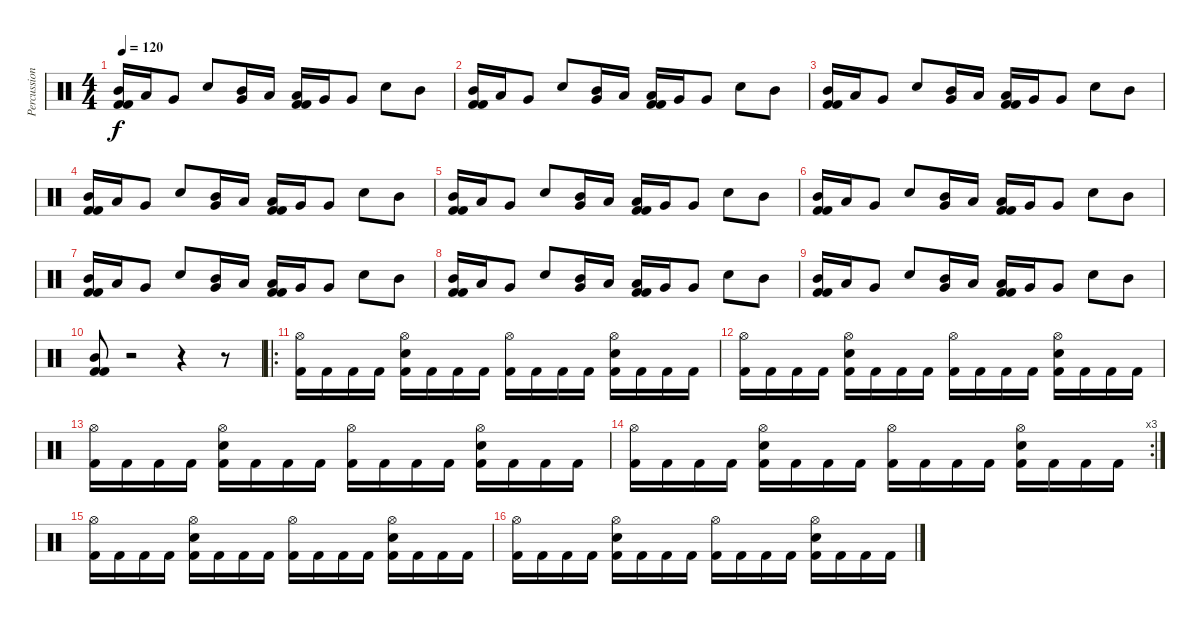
\track ("Percussions" "Percussion") {instrument percussion}
\staff {score}
\articulation defaults
\ts (4 4)
\tempo 120
\clef neutral
\ks c
("Kick (hit) 2" "Mid Tom (hit)" "Kick (hit) 2").16{dy f} "Low Tom (hit)".16 "Very Low Tom (hit)".8 "Snare (hit) 2".8 ("Mid Tom (hit)" "Very Low Tom (hit)").16 "Low Tom (hit)".16 ("Kick (hit) 2" "Low Tom (hit)" "Kick (hit) 2").16 "Very Low Tom (hit)".16 "Very Low Tom (hit)".8 "Snare (hit) 2".8 "Mid Tom (hit)".8 |
("Kick (hit) 2" "Mid Tom (hit)" "Kick (hit) 2").16 "Low Tom (hit)".16 "Very Low Tom (hit)".8 "Snare (hit) 2".8 ("Mid Tom (hit)" "Very Low Tom (hit)").16 "Low Tom (hit)".16 ("Kick (hit) 2" "Low Tom (hit)" "Kick (hit) 2").16 "Very Low Tom (hit)".16 "Very Low Tom (hit)".8 "Snare (hit) 2".8 "Mid Tom (hit)".8 |
("Kick (hit) 2" "Mid Tom (hit)" "Kick (hit) 2").16 "Low Tom (hit)".16 "Very Low Tom (hit)".8 "Snare (hit) 2".8 ("Mid Tom (hit)" "Very Low Tom (hit)").16 "Low Tom (hit)".16 ("Kick (hit) 2" "Low Tom (hit)" "Kick (hit) 2").16 "Very Low Tom (hit)".16 "Very Low Tom (hit)".8 "Snare (hit) 2".8 "Mid Tom (hit)".8 |
("Kick (hit) 2" "Mid Tom (hit)" "Kick (hit) 2").16 "Low Tom (hit)".16 "Very Low Tom (hit)".8 "Snare (hit) 2".8 ("Mid Tom (hit)" "Very Low Tom (hit)").16 "Low Tom (hit)".16 ("Kick (hit) 2" "Low Tom (hit)" "Kick (hit) 2").16 "Very Low Tom (hit)".16 "Very Low Tom (hit)".8 "Snare (hit) 2".8 "Mid Tom (hit)".8 |
("Kick (hit) 2" "Mid Tom (hit)" "Kick (hit) 2").16 "Low Tom (hit)".16 "Very Low Tom (hit)".8 "Snare (hit) 2".8 ("Mid Tom (hit)" "Very Low Tom (hit)").16 "Low Tom (hit)".16 ("Kick (hit) 2" "Low Tom (hit)" "Kick (hit) 2").16 "Very Low Tom (hit)".16 "Very Low Tom (hit)".8 "Snare (hit) 2".8 "Mid Tom (hit)".8 |
("Kick (hit) 2" "Mid Tom (hit)" "Kick (hit) 2").16 "Low Tom (hit)".16 "Very Low Tom (hit)".8 "Snare (hit) 2".8 ("Mid Tom (hit)" "Very Low Tom (hit)").16 "Low Tom (hit)".16 ("Kick (hit) 2" "Low Tom (hit)" "Kick (hit) 2").16 "Very Low Tom (hit)".16 "Very Low Tom (hit)".8 "Snare (hit) 2".8 "Mid Tom (hit)".8 |
("Kick (hit) 2" "Mid Tom (hit)" "Kick (hit) 2").16 "Low Tom (hit)".16 "Very Low Tom (hit)".8 "Snare (hit) 2".8 ("Mid Tom (hit)" "Very Low Tom (hit)").16 "Low Tom (hit)".16 ("Kick (hit) 2" "Low Tom (hit)" "Kick (hit) 2").16 "Very Low Tom (hit)".16 "Very Low Tom (hit)".8 "Snare (hit) 2".8 "Mid Tom (hit)".8 |
("Kick (hit) 2" "Mid Tom (hit)" "Kick (hit) 2").16 "Low Tom (hit)".16 "Very Low Tom (hit)".8 "Snare (hit) 2".8 ("Mid Tom (hit)" "Very Low Tom (hit)").16 "Low Tom (hit)".16 ("Kick (hit) 2" "Low Tom (hit)" "Kick (hit) 2").16 "Very Low Tom (hit)".16 "Very Low Tom (hit)".8 "Snare (hit) 2".8 "Mid Tom (hit)".8 |
("Kick (hit) 2" "Mid Tom (hit)" "Kick (hit) 2").16 "Low Tom (hit)".16 "Very Low Tom (hit)".8 "Snare (hit) 2".8 ("Mid Tom (hit)" "Very Low Tom (hit)").16 "Low Tom (hit)".16 ("Kick (hit) 2" "Low Tom (hit)" "Kick (hit) 2").16 "Very Low Tom (hit)".16 "Very Low Tom (hit)".8 "Snare (hit) 2".8 "Mid Tom (hit)".8 |
("Kick (hit) 2" "Mid Tom (hit)" "Kick (hit) 2").8 r.2 r.4 r.8 |
\ro
("Hi-Hat (open)" "Kick (hit) 2").16 "Kick (hit) 2".16 "Kick (hit) 2".16 "Kick (hit) 2".16 ("Hi-Hat (open)" "Snare (hit) 2" "Kick (hit) 2").16 "Kick (hit) 2".16 "Kick (hit) 2".16 "Kick (hit) 2".16 ("Hi-Hat (open)" "Kick (hit) 2").16 "Kick (hit) 2".16 "Kick (hit) 2".16 "Kick (hit) 2".16 ("Hi-Hat (open)" "Snare (hit) 2" "Kick (hit) 2").16 "Kick (hit) 2".16 "Kick (hit) 2".16 "Kick (hit) 2".16 |
("Hi-Hat (open)" "Kick (hit) 2").16 "Kick (hit) 2".16 "Kick (hit) 2".16 "Kick (hit) 2".16 ("Hi-Hat (open)" "Snare (hit) 2" "Kick (hit) 2").16 "Kick (hit) 2".16 "Kick (hit) 2".16 "Kick (hit) 2".16 ("Hi-Hat (open)" "Kick (hit) 2").16 "Kick (hit) 2".16 "Kick (hit) 2".16 "Kick (hit) 2".16 ("Hi-Hat (open)" "Snare (hit) 2" "Kick (hit) 2").16 "Kick (hit) 2".16 "Kick (hit) 2".16 "Kick (hit) 2".16 |
("Hi-Hat (open)" "Kick (hit) 2").16 "Kick (hit) 2".16 "Kick (hit) 2".16 "Kick (hit) 2".16 ("Hi-Hat (open)" "Snare (hit) 2" "Kick (hit) 2").16 "Kick (hit) 2".16 "Kick (hit) 2".16 "Kick (hit) 2".16 ("Hi-Hat (open)" "Kick (hit) 2").16 "Kick (hit) 2".16 "Kick (hit) 2".16 "Kick (hit) 2".16 ("Hi-Hat (open)" "Snare (hit) 2" "Kick (hit) 2").16 "Kick (hit) 2".16 "Kick (hit) 2".16 "Kick (hit) 2".16 |
\rc 3
("Hi-Hat (open)" "Kick (hit) 2").16 "Kick (hit) 2".16 "Kick (hit) 2".16 "Kick (hit) 2".16 ("Hi-Hat (open)" "Snare (hit) 2" "Kick (hit) 2").16 "Kick (hit) 2".16 "Kick (hit) 2".16 "Kick (hit) 2".16 ("Hi-Hat (open)" "Kick (hit) 2").16 "Kick (hit) 2".16 "Kick (hit) 2".16 "Kick (hit) 2".16 ("Hi-Hat (open)" "Snare (hit) 2" "Kick (hit) 2").16 "Kick (hit) 2".16 "Kick (hit) 2".16 "Kick (hit) 2".16 |
("Hi-Hat (open)" "Kick (hit) 2").16 "Kick (hit) 2".16 "Kick (hit) 2".16 "Kick (hit) 2".16 ("Hi-Hat (open)" "Snare (hit) 2" "Kick (hit) 2").16 "Kick (hit) 2".16 "Kick (hit) 2".16 "Kick (hit) 2".16 ("Hi-Hat (open)" "Kick (hit) 2").16 "Kick (hit) 2".16 "Kick (hit) 2".16 "Kick (hit) 2".16 ("Hi-Hat (open)" "Snare (hit) 2" "Kick (hit) 2").16 "Kick (hit) 2".16 "Kick (hit) 2".16 "Kick (hit) 2".16 |
("Hi-Hat (open)" "Kick (hit) 2").16 "Kick (hit) 2".16 "Kick (hit) 2".16 "Kick (hit) 2".16 ("Hi-Hat (open)" "Snare (hit) 2" "Kick (hit) 2").16 "Kick (hit) 2".16 "Kick (hit) 2".16 "Kick (hit) 2".16 ("Hi-Hat (open)" "Kick (hit) 2").16 "Kick (hit) 2".16 "Kick (hit) 2".16 "Kick (hit) 2".16 ("Hi-Hat (open)" "Snare (hit) 2" "Kick (hit) 2").16 "Kick (hit) 2".16 "Kick (hit) 2".16 "Kick (hit) 2".16
